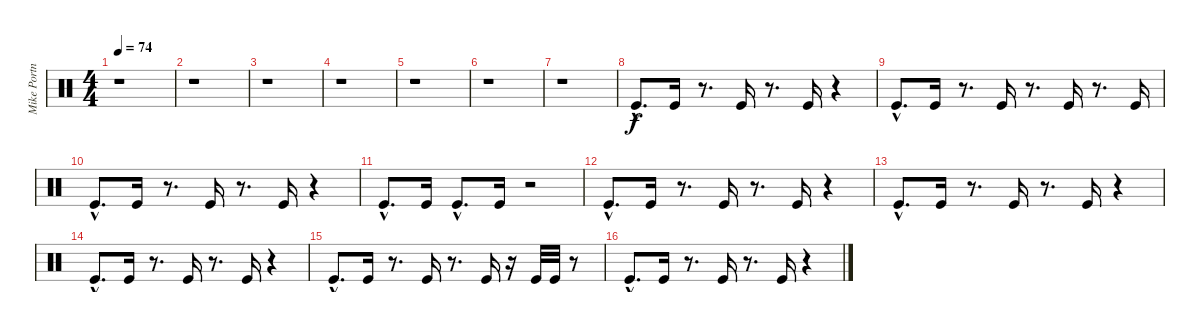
\track ("Mike Portnoy" "Mike Portn") {instrument percussion}
\staff {score}
\articulation defaults
\ts (4 4)
\tempo 74
\clef neutral
\ks c
r.1{dy f} |
r.1 |
r.1 |
r.1 |
r.1 |
r.1 |
r.1 |
"Kick (hit)"{hac}.8{d} "Kick (hit)".16 r.8{d} "Kick (hit)".16 r.8{d} "Kick (hit)".16 r.4 |
"Kick (hit)"{hac}.8{d} "Kick (hit)".16 r.8{d} "Kick (hit)".16 r.8{d} "Kick (hit)".16 r.8{d} "Kick (hit)".16 |
"Kick (hit)"{hac}.8{d} "Kick (hit)".16 r.8{d} "Kick (hit)".16 r.8{d} "Kick (hit)".16 r.4 |
"Kick (hit)"{hac}.8{d} "Kick (hit)".16 "Kick (hit)"{hac}.8{d} "Kick (hit)".16 r.2 |
"Kick (hit)"{hac}.8{d} "Kick (hit)".16 r.8{d} "Kick (hit)".16 r.8{d} "Kick (hit)".16 r.4 |
"Kick (hit)"{hac}.8{d} "Kick (hit)".16 r.8{d} "Kick (hit)".16 r.8{d} "Kick (hit)".16 r.4 |
"Kick (hit)"{hac}.8{d} "Kick (hit)".16 r.8{d} "Kick (hit)".16 r.8{d} "Kick (hit)".16 r.4 |
"Kick (hit)"{hac}.8{d} "Kick (hit)".16 r.8{d} "Kick (hit)".16 r.8{d} "Kick (hit)".16 r.16 "Kick (hit)".32 "Kick (hit)".32 r.8 |
"Kick (hit)"{hac}.8{d} "Kick (hit)".16 r.8{d} "Kick (hit)".16 r.8{d} "Kick (hit)".16 r.4
